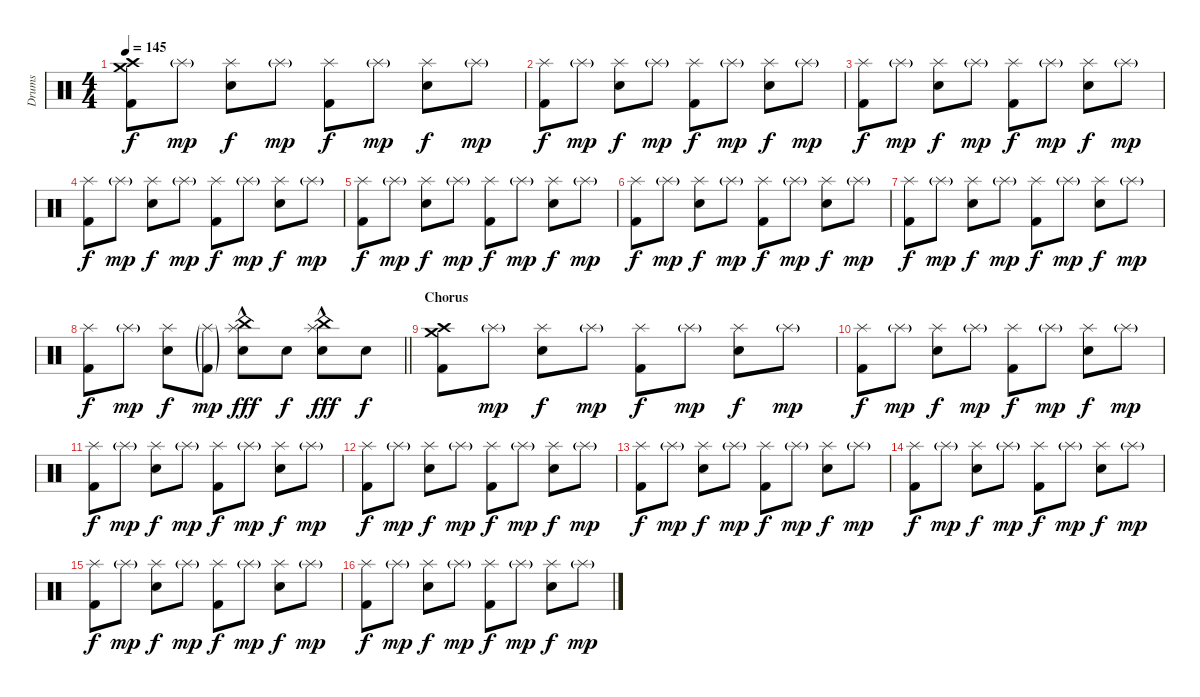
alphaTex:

\track ("Drums" "Drums") {instrument percussion}
\staff {score}
\articulation defaults
\ts (4 4)
\tempo 145
\clef neutral
\ks c
("Crash high (hit)" "Crash medium (hit)" "Kick (hit) 2").8{dy f} "Splash (hit)"{g}.8{dy mp} ("Splash (hit)" "Snare (hit) 2").8{dy f} "Splash (hit)"{g}.8{dy mp} ("Splash (hit)" "Kick (hit) 2").8{dy f} "Splash (hit)"{g}.8{dy mp} ("Splash (hit)" "Snare (hit) 2").8{dy f} "Splash (hit)"{g}.8{dy mp} |
("Splash (hit)" "Kick (hit) 2").8{dy f} "Splash (hit)"{g}.8{dy mp} ("Splash (hit)" "Snare (hit) 2").8{dy f} "Splash (hit)"{g}.8{dy mp} ("Splash (hit)" "Kick (hit) 2").8{dy f} "Splash (hit)"{g}.8{dy mp} ("Splash (hit)" "Snare (hit) 2").8{dy f} "Splash (hit)"{g}.8{dy mp} |
("Splash (hit)" "Kick (hit) 2").8{dy f} "Splash (hit)"{g}.8{dy mp} ("Splash (hit)" "Snare (hit) 2").8{dy f} "Splash (hit)"{g}.8{dy mp} ("Splash (hit)" "Kick (hit) 2").8{dy f} "Splash (hit)"{g}.8{dy mp} ("Splash (hit)" "Snare (hit) 2").8{dy f} "Splash (hit)"{g}.8{dy mp} |
("Splash (hit)" "Kick (hit) 2").8{dy f} "Splash (hit)"{g}.8{dy mp} ("Splash (hit)" "Snare (hit) 2").8{dy f} "Splash (hit)"{g}.8{dy mp} ("Splash (hit)" "Kick (hit) 2").8{dy f} "Splash (hit)"{g}.8{dy mp} ("Splash (hit)" "Snare (hit) 2").8{dy f} "Splash (hit)"{g}.8{dy mp} |
("Splash (hit)" "Kick (hit) 2").8{dy f} "Splash (hit)"{g}.8{dy mp} ("Splash (hit)" "Snare (hit) 2").8{dy f} "Splash (hit)"{g}.8{dy mp} ("Splash (hit)" "Kick (hit) 2").8{dy f} "Splash (hit)"{g}.8{dy mp} ("Splash (hit)" "Snare (hit) 2").8{dy f} "Splash (hit)"{g}.8{dy mp} |
("Splash (hit)" "Kick (hit) 2").8{dy f} "Splash (hit)"{g}.8{dy mp} ("Splash (hit)" "Snare (hit) 2").8{dy f} "Splash (hit)"{g}.8{dy mp} ("Splash (hit)" "Kick (hit) 2").8{dy f} "Splash (hit)"{g}.8{dy mp} ("Splash (hit)" "Snare (hit) 2").8{dy f} "Splash (hit)"{g}.8{dy mp} |
("Splash (hit)" "Kick (hit) 2").8{dy f} "Splash (hit)"{g}.8{dy mp} ("Splash (hit)" "Snare (hit) 2").8{dy f} "Splash (hit)"{g}.8{dy mp} ("Splash (hit)" "Kick (hit) 2").8{dy f} "Splash (hit)"{g}.8{dy mp} ("Splash (hit)" "Snare (hit) 2").8{dy f} "Splash (hit)"{g}.8{dy mp} |
\barLineRight lightlight
("Splash (hit)" "Kick (hit) 2").8{dy f} "Splash (hit)"{g}.8{dy mp} ("Splash (hit)" "Snare (hit) 2").8{dy f} ("Splash (hit)"{g} "Kick (hit) 2"{g}).8{dy mp} ("Splash (hit)"{hac} "China (hit)" "Snare (hit) 2").8{dy fff} "Snare (hit) 2".8{dy f} ("Splash (hit)"{hac} "China (hit)" "Snare (hit) 2").8{dy fff} "Snare (hit) 2".8{dy f} |
\section ("" "Chorus")
("Crash high (hit)" "Crash medium (hit)" "Kick (hit) 2").8 "Splash (hit)"{g}.8{dy mp} ("Splash (hit)" "Snare (hit) 2").8{dy f} "Splash (hit)"{g}.8{dy mp} ("Splash (hit)" "Kick (hit) 2").8{dy f} "Splash (hit)"{g}.8{dy mp} ("Splash (hit)" "Snare (hit) 2").8{dy f} "Splash (hit)"{g}.8{dy mp} |
("Splash (hit)" "Kick (hit) 2").8{dy f} "Splash (hit)"{g}.8{dy mp} ("Splash (hit)" "Snare (hit) 2").8{dy f} "Splash (hit)"{g}.8{dy mp} ("Splash (hit)" "Kick (hit) 2").8{dy f} "Splash (hit)"{g}.8{dy mp} ("Splash (hit)" "Snare (hit) 2").8{dy f} "Splash (hit)"{g}.8{dy mp} |
("Splash (hit)" "Kick (hit) 2").8{dy f} "Splash (hit)"{g}.8{dy mp} ("Splash (hit)" "Snare (hit) 2").8{dy f} "Splash (hit)"{g}.8{dy mp} ("Splash (hit)" "Kick (hit) 2").8{dy f} "Splash (hit)"{g}.8{dy mp} ("Splash (hit)" "Snare (hit) 2").8{dy f} "Splash (hit)"{g}.8{dy mp} |
("Splash (hit)" "Kick (hit) 2").8{dy f} "Splash (hit)"{g}.8{dy mp} ("Splash (hit)" "Snare (hit) 2").8{dy f} "Splash (hit)"{g}.8{dy mp} ("Splash (hit)" "Kick (hit) 2").8{dy f} "Splash (hit)"{g}.8{dy mp} ("Splash (hit)" "Snare (hit) 2").8{dy f} "Splash (hit)"{g}.8{dy mp} |
("Splash (hit)" "Kick (hit) 2").8{dy f} "Splash (hit)"{g}.8{dy mp} ("Splash (hit)" "Snare (hit) 2").8{dy f} "Splash (hit)"{g}.8{dy mp} ("Splash (hit)" "Kick (hit) 2").8{dy f} "Splash (hit)"{g}.8{dy mp} ("Splash (hit)" "Snare (hit) 2").8{dy f} "Splash (hit)"{g}.8{dy mp} |
("Splash (hit)" "Kick (hit) 2").8{dy f} "Splash (hit)"{g}.8{dy mp} ("Splash (hit)" "Snare (hit) 2").8{dy f} "Splash (hit)"{g}.8{dy mp} ("Splash (hit)" "Kick (hit) 2").8{dy f} "Splash (hit)"{g}.8{dy mp} ("Splash (hit)" "Snare (hit) 2").8{dy f} "Splash (hit)"{g}.8{dy mp} |
("Splash (hit)" "Kick (hit) 2").8{dy f} "Splash (hit)"{g}.8{dy mp} ("Splash (hit)" "Snare (hit) 2").8{dy f} "Splash (hit)"{g}.8{dy mp} ("Splash (hit)" "Kick (hit) 2").8{dy f} "Splash (hit)"{g}.8{dy mp} ("Splash (hit)" "Snare (hit) 2").8{dy f} "Splash (hit)"{g}.8{dy mp} |
("Splash (hit)" "Kick (hit) 2").8{dy f} "Splash (hit)"{g}.8{dy mp} ("Splash (hit)" "Snare (hit) 2").8{dy f} "Splash (hit)"{g}.8{dy mp} ("Splash (hit)" "Kick (hit) 2").8{dy f} "Splash (hit)"{g}.8{dy mp} ("Splash (hit)" "Snare (hit) 2").8{dy f} "Splash (hit)"{g}.8{dy mp}
